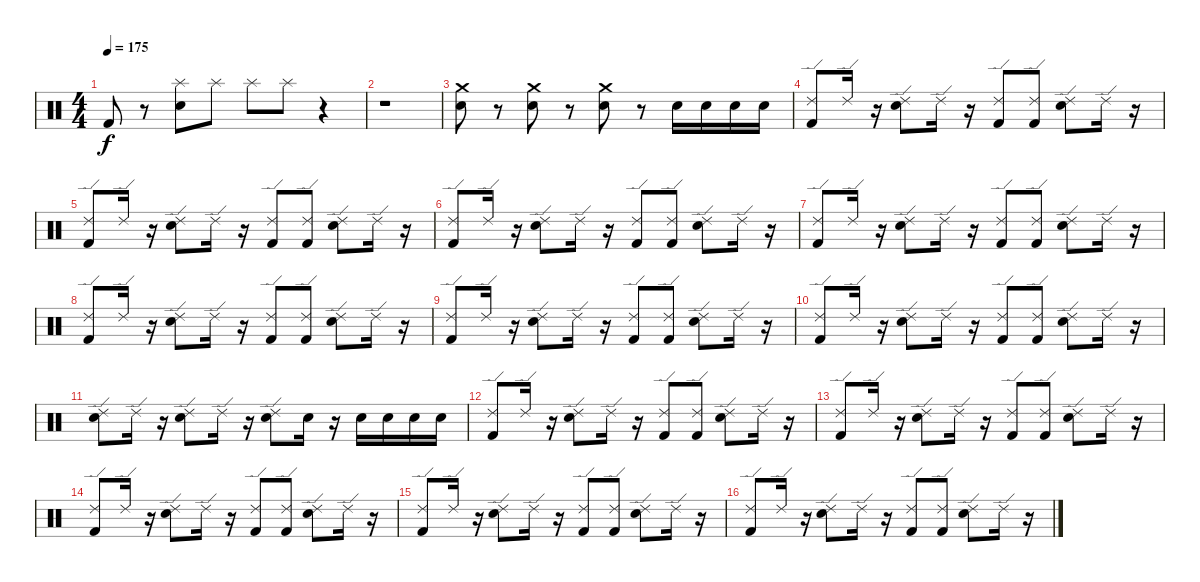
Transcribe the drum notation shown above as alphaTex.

\track "" {instrument percussion}
\staff {score}
\articulation defaults
\ts (4 4)
\tempo 175
\clef neutral
\ks c "Kick (hit) 2".8{dy f}
r.8 ("Splash (hit)" "Electric Snare (hit)").8 "Splash (hit)".8 "Splash (hit)".8 "Splash (hit)".8 r.4 |
r.1 |
("Crash medium (hit)" "Electric Snare (hit)").8 r.8 ("Crash medium (hit)" "Electric Snare (hit)").8 r.8 ("Crash medium (hit)" "Electric Snare (hit)").8 r.8 "Electric Snare (hit)".16 "Electric Snare (hit)".16 "Electric Snare (hit)".16 "Electric Snare (hit)".16 |
("Ride (edge) 2" "Kick (hit) 2").8 "Ride (edge) 2".16 r.16 ("Ride (edge) 2" "Electric Snare (hit)").8 "Ride (edge) 2".16 r.16 ("Ride (edge) 2" "Kick (hit) 2").8 ("Ride (edge) 2" "Kick (hit) 2").8 ("Ride (edge) 2" "Electric Snare (hit)").8 "Ride (edge) 2".16 r.16 |
("Ride (edge) 2" "Kick (hit) 2").8 "Ride (edge) 2".16 r.16 ("Ride (edge) 2" "Electric Snare (hit)").8 "Ride (edge) 2".16 r.16 ("Ride (edge) 2" "Kick (hit) 2").8 ("Ride (edge) 2" "Kick (hit) 2").8 ("Ride (edge) 2" "Electric Snare (hit)").8 "Ride (edge) 2".16 r.16 |
("Ride (edge) 2" "Kick (hit) 2").8 "Ride (edge) 2".16 r.16 ("Ride (edge) 2" "Electric Snare (hit)").8 "Ride (edge) 2".16 r.16 ("Ride (edge) 2" "Kick (hit) 2").8 ("Ride (edge) 2" "Kick (hit) 2").8 ("Ride (edge) 2" "Electric Snare (hit)").8 "Ride (edge) 2".16 r.16 |
("Ride (edge) 2" "Kick (hit) 2").8 "Ride (edge) 2".16 r.16 ("Ride (edge) 2" "Electric Snare (hit)").8 "Ride (edge) 2".16 r.16 ("Ride (edge) 2" "Kick (hit) 2").8 ("Ride (edge) 2" "Kick (hit) 2").8 ("Ride (edge) 2" "Electric Snare (hit)").8 "Ride (edge) 2".16 r.16 |
("Ride (edge) 2" "Kick (hit) 2").8 "Ride (edge) 2".16 r.16 ("Ride (edge) 2" "Electric Snare (hit)").8 "Ride (edge) 2".16 r.16 ("Ride (edge) 2" "Kick (hit) 2").8 ("Ride (edge) 2" "Kick (hit) 2").8 ("Ride (edge) 2" "Electric Snare (hit)").8 "Ride (edge) 2".16 r.16 |
("Ride (edge) 2" "Kick (hit) 2").8 "Ride (edge) 2".16 r.16 ("Ride (edge) 2" "Electric Snare (hit)").8 "Ride (edge) 2".16 r.16 ("Ride (edge) 2" "Kick (hit) 2").8 ("Ride (edge) 2" "Kick (hit) 2").8 ("Ride (edge) 2" "Electric Snare (hit)").8 "Ride (edge) 2".16 r.16 |
("Ride (edge) 2" "Kick (hit) 2").8 "Ride (edge) 2".16 r.16 ("Ride (edge) 2" "Electric Snare (hit)").8 "Ride (edge) 2".16 r.16 ("Ride (edge) 2" "Kick (hit) 2").8 ("Ride (edge) 2" "Kick (hit) 2").8 ("Ride (edge) 2" "Electric Snare (hit)").8 "Ride (edge) 2".16 r.16 |
("Ride (edge) 2" "Electric Snare (hit)").8 "Ride (edge) 2".16 r.16 ("Ride (edge) 2" "Electric Snare (hit)").8 "Ride (edge) 2".16 r.16 ("Ride (edge) 2" "Electric Snare (hit)").8 "Electric Snare (hit)".16 r.16 "Electric Snare (hit)".16 "Electric Snare (hit)".16 "Electric Snare (hit)".16 "Electric Snare (hit)".16 |
("Ride (edge) 2" "Kick (hit) 2").8 "Ride (edge) 2".16 r.16 ("Ride (edge) 2" "Electric Snare (hit)").8 "Ride (edge) 2".16 r.16 ("Ride (edge) 2" "Kick (hit) 2").8 ("Ride (edge) 2" "Kick (hit) 2").8 ("Ride (edge) 2" "Electric Snare (hit)").8 "Ride (edge) 2".16 r.16 |
("Ride (edge) 2" "Kick (hit) 2").8 "Ride (edge) 2".16 r.16 ("Ride (edge) 2" "Electric Snare (hit)").8 "Ride (edge) 2".16 r.16 ("Ride (edge) 2" "Kick (hit) 2").8 ("Ride (edge) 2" "Kick (hit) 2").8 ("Ride (edge) 2" "Electric Snare (hit)").8 "Ride (edge) 2".16 r.16 |
("Ride (edge) 2" "Kick (hit) 2").8 "Ride (edge) 2".16 r.16 ("Ride (edge) 2" "Electric Snare (hit)").8 "Ride (edge) 2".16 r.16 ("Ride (edge) 2" "Kick (hit) 2").8 ("Ride (edge) 2" "Kick (hit) 2").8 ("Ride (edge) 2" "Electric Snare (hit)").8 "Ride (edge) 2".16 r.16 |
("Ride (edge) 2" "Kick (hit) 2").8 "Ride (edge) 2".16 r.16 ("Ride (edge) 2" "Electric Snare (hit)").8 "Ride (edge) 2".16 r.16 ("Ride (edge) 2" "Kick (hit) 2").8 ("Ride (edge) 2" "Kick (hit) 2").8 ("Ride (edge) 2" "Electric Snare (hit)").8 "Ride (edge) 2".16 r.16 |
("Ride (edge) 2" "Kick (hit) 2").8 "Ride (edge) 2".16 r.16 ("Ride (edge) 2" "Electric Snare (hit)").8 "Ride (edge) 2".16 r.16 ("Ride (edge) 2" "Kick (hit) 2").8 ("Ride (edge) 2" "Kick (hit) 2").8 ("Ride (edge) 2" "Electric Snare (hit)").8 "Ride (edge) 2".16 r.16
